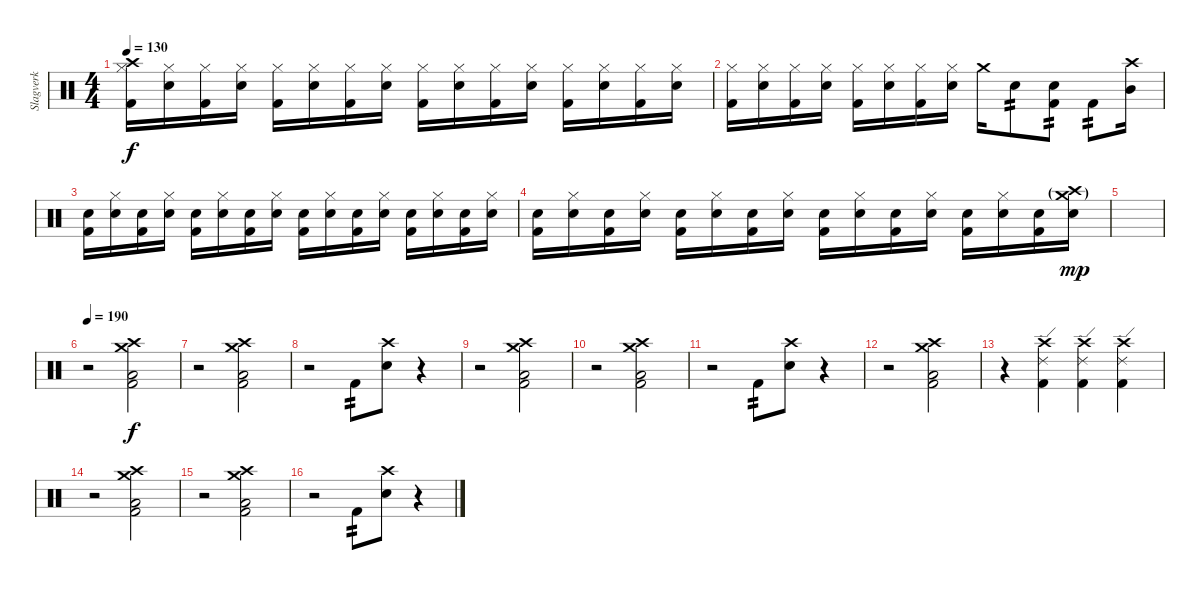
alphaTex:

\track ("Slagverk" "Slagverk") {instrument percussion}
\staff {score}
\articulation defaults
\ts (4 4)
\tempo 130
\clef neutral
\ks c
("Crash high (hit)" "Hi-Hat (closed)" "Kick (hit) 2").16{dy f} ("Electric Snare (hit)" "Hi-Hat (closed)").16 ("Hi-Hat (closed)" "Kick (hit) 2").16 ("Electric Snare (hit)" "Hi-Hat (closed)").16 ("Hi-Hat (closed)" "Kick (hit) 2").16 ("Electric Snare (hit)" "Hi-Hat (closed)").16 ("Hi-Hat (closed)" "Kick (hit) 2").16 ("Electric Snare (hit)" "Hi-Hat (closed)").16 ("Hi-Hat (closed)" "Kick (hit) 2").16 ("Electric Snare (hit)" "Hi-Hat (closed)").16 ("Hi-Hat (closed)" "Kick (hit) 2").16 ("Electric Snare (hit)" "Hi-Hat (closed)").16 ("Hi-Hat (closed)" "Kick (hit) 2").16 ("Electric Snare (hit)" "Hi-Hat (closed)").16 ("Hi-Hat (closed)" "Kick (hit) 2").16 ("Electric Snare (hit)" "Hi-Hat (closed)").16 |
("Hi-Hat (closed)" "Kick (hit) 2").16 ("Electric Snare (hit)" "Hi-Hat (closed)").16 ("Hi-Hat (closed)" "Kick (hit) 2").16 ("Electric Snare (hit)" "Hi-Hat (closed)").16 ("Hi-Hat (closed)" "Kick (hit) 2").16 ("Electric Snare (hit)" "Hi-Hat (closed)").16 ("Hi-Hat (closed)" "Kick (hit) 2").16 ("Electric Snare (hit)" "Hi-Hat (closed)").16 "Crash medium (hit)".16 "Electric Snare (hit)".8{tp 2} ("Electric Snare (hit)" "Kick (hit) 2").8{tp 2} "Kick (hit) 2".8{tp 2} ("Mid Tom (hit)" "Crash high (hit)").16 |
("Electric Snare (hit)" "Kick (hit) 2").16 ("Hi-Hat (closed)" "Electric Snare (hit)").16 ("Electric Snare (hit)" "Kick (hit) 2").16 ("Hi-Hat (closed)" "Electric Snare (hit)").16 ("Electric Snare (hit)" "Kick (hit) 2").16 ("Hi-Hat (closed)" "Electric Snare (hit)").16 ("Electric Snare (hit)" "Kick (hit) 2").16 ("Hi-Hat (closed)" "Electric Snare (hit)").16 ("Electric Snare (hit)" "Kick (hit) 2").16 ("Hi-Hat (closed)" "Electric Snare (hit)").16 ("Electric Snare (hit)" "Kick (hit) 2").16 ("Hi-Hat (closed)" "Electric Snare (hit)").16 ("Electric Snare (hit)" "Kick (hit) 2").16 ("Hi-Hat (closed)" "Electric Snare (hit)").16 ("Electric Snare (hit)" "Kick (hit) 2").16 ("Hi-Hat (closed)" "Electric Snare (hit)").16 |
("Electric Snare (hit)" "Kick (hit) 2").16 ("Hi-Hat (closed)" "Electric Snare (hit)").16 ("Electric Snare (hit)" "Kick (hit) 2").16 ("Hi-Hat (closed)" "Electric Snare (hit)").16 ("Electric Snare (hit)" "Kick (hit) 2").16 ("Hi-Hat (closed)" "Electric Snare (hit)").16 ("Electric Snare (hit)" "Kick (hit) 2").16 ("Hi-Hat (closed)" "Electric Snare (hit)").16 ("Electric Snare (hit)" "Kick (hit) 2").16 ("Hi-Hat (closed)" "Electric Snare (hit)").16 ("Electric Snare (hit)" "Kick (hit) 2").16 ("Hi-Hat (closed)" "Electric Snare (hit)").16 ("Electric Snare (hit)" "Kick (hit) 2").16 ("Hi-Hat (closed)" "Electric Snare (hit)").16 ("Electric Snare (hit)" "Kick (hit) 2").16 ("Crash medium (hit)"{g} "Crash high (hit)"{g} "Electric Snare (hit)").16{dy mp} |
|
\tempo 190
r.2 ("Crash medium (hit)" "Crash high (hit)" "Low Tom (hit)" "Kick (hit) 2").2{dy f} |
r.2 ("Crash medium (hit)" "Crash high (hit)" "Low Tom (hit)" "Kick (hit) 2").2 |
r.2 "Kick (hit) 2".8{tp 2} ("Crash high (hit)" "Electric Snare (hit)").8 r.4 |
r.2 ("Crash medium (hit)" "Crash high (hit)" "Low Tom (hit)" "Kick (hit) 2").2 |
r.2 ("Crash medium (hit)" "Crash high (hit)" "Low Tom (hit)" "Kick (hit) 2").2 |
r.2 "Kick (hit) 2".8{tp 2} ("Crash high (hit)" "Electric Snare (hit)").8 r.4 |
r.2 ("Crash medium (hit)" "Crash high (hit)" "Low Tom (hit)" "Kick (hit) 2").2 |
r.4 ("Ride (edge) 2" "Crash high (hit)" "Kick (hit) 2").4 ("Ride (edge) 2" "Crash high (hit)" "Kick (hit) 2").4 ("Ride (edge) 2" "Crash high (hit)" "Kick (hit) 2").4 |
r.2 ("Crash medium (hit)" "Crash high (hit)" "Low Tom (hit)" "Kick (hit) 2").2 |
r.2 ("Crash medium (hit)" "Crash high (hit)" "Low Tom (hit)" "Kick (hit) 2").2 |
r.2 "Kick (hit) 2".8{tp 2} ("Crash high (hit)" "Electric Snare (hit)").8 r.4
